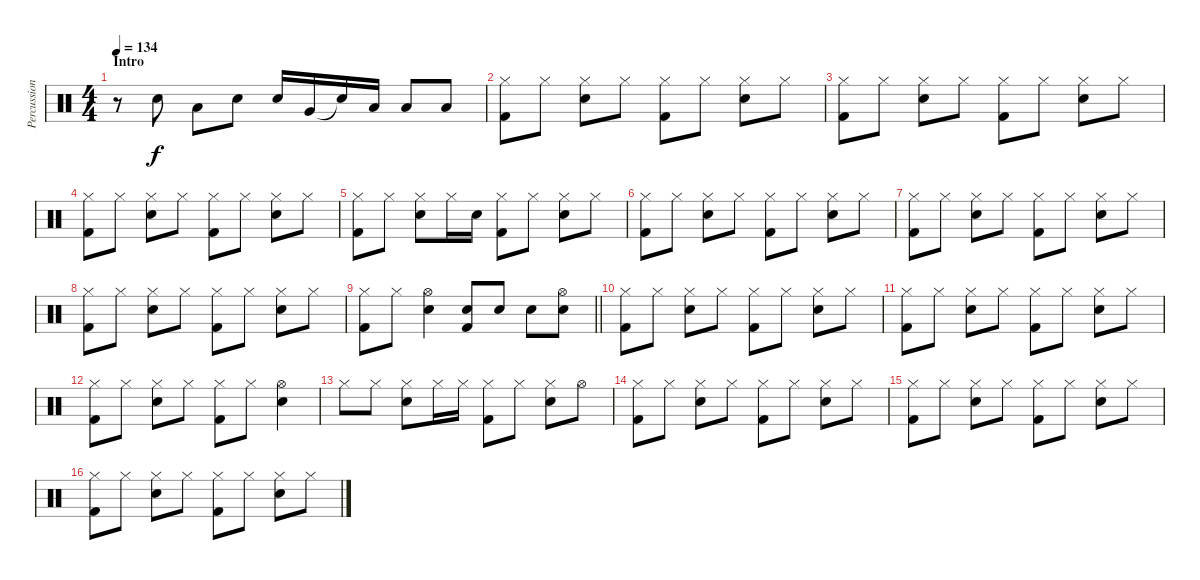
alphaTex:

\track ("Percussion" "Percussion") {instrument percussion}
\staff {score}
\articulation defaults
\ts (4 4)
\section ("" "Intro")
\tempo 134
\clef neutral
\ks c
r.8{dy f} "Snare (hit) 2".8 "Low Tom (hit)".8 "Snare (hit) 2".8 "Snare (hit) 2".16 "Very Low Tom (hit)".16 "Snare (hit)"{t}.16 "Low Floor Tom (hit)".16 "Low Floor Tom (hit)".8 "Low Floor Tom (hit)".8 |
("Hi-Hat (closed)" "Kick (hit) 2").8 "Hi-Hat (closed)".8 ("Hi-Hat (closed)" "Snare (hit) 2").8 "Hi-Hat (closed)".8 ("Hi-Hat (closed)" "Kick (hit) 2").8 "Hi-Hat (closed)".8 ("Hi-Hat (closed)" "Snare (hit) 2").8 "Hi-Hat (closed)".8 |
("Hi-Hat (closed)" "Kick (hit) 2").8 "Hi-Hat (closed)".8 ("Hi-Hat (closed)" "Snare (hit) 2").8 "Hi-Hat (closed)".8 ("Hi-Hat (closed)" "Kick (hit) 2").8 "Hi-Hat (closed)".8 ("Hi-Hat (closed)" "Snare (hit) 2").8 "Hi-Hat (closed)".8 |
("Hi-Hat (closed)" "Kick (hit) 2").8 "Hi-Hat (closed)".8 ("Hi-Hat (closed)" "Snare (hit) 2").8 "Hi-Hat (closed)".8 ("Hi-Hat (closed)" "Kick (hit) 2").8 "Hi-Hat (closed)".8 ("Hi-Hat (closed)" "Snare (hit) 2").8 "Hi-Hat (closed)".8 |
("Hi-Hat (closed)" "Kick (hit) 2").8 "Hi-Hat (closed)".8 ("Hi-Hat (closed)" "Snare (hit) 2").8 "Hi-Hat (closed)".16 "Snare (hit) 2".16 ("Hi-Hat (closed)" "Kick (hit) 2").8 "Hi-Hat (closed)".8 ("Hi-Hat (closed)" "Snare (hit) 2").8 "Hi-Hat (closed)".8 |
("Hi-Hat (closed)" "Kick (hit) 2").8 "Hi-Hat (closed)".8 ("Hi-Hat (closed)" "Snare (hit) 2").8 "Hi-Hat (closed)".8 ("Hi-Hat (closed)" "Kick (hit) 2").8 "Hi-Hat (closed)".8 ("Hi-Hat (closed)" "Snare (hit) 2").8 "Hi-Hat (closed)".8 |
("Hi-Hat (closed)" "Kick (hit) 2").8 "Hi-Hat (closed)".8 ("Hi-Hat (closed)" "Snare (hit) 2").8 "Hi-Hat (closed)".8 ("Hi-Hat (closed)" "Kick (hit) 2").8 "Hi-Hat (closed)".8 ("Hi-Hat (closed)" "Snare (hit) 2").8 "Hi-Hat (closed)".8 |
("Hi-Hat (closed)" "Kick (hit) 2").8 "Hi-Hat (closed)".8 ("Hi-Hat (closed)" "Snare (hit) 2").8 "Hi-Hat (closed)".8 ("Hi-Hat (closed)" "Kick (hit) 2").8 "Hi-Hat (closed)".8 ("Hi-Hat (closed)" "Snare (hit) 2").8 "Hi-Hat (closed)".8 |
\barLineRight lightlight
("Hi-Hat (closed)" "Kick (hit) 2").8 "Hi-Hat (closed)".8 ("Hi-Hat (open)" "Snare (hit) 2").4 ("Snare (hit) 2" "Kick (hit) 2").8 "Snare (hit) 2".8 "Snare (hit) 2".8 ("Hi-Hat (open)" "Snare (hit) 2").8 |
("Hi-Hat (closed)" "Kick (hit) 2").8 "Hi-Hat (closed)".8 ("Hi-Hat (closed)" "Snare (hit) 2").8 "Hi-Hat (closed)".8 ("Hi-Hat (closed)" "Kick (hit) 2").8 "Hi-Hat (closed)".8 ("Hi-Hat (closed)" "Snare (hit) 2").8 "Hi-Hat (closed)".8 |
("Hi-Hat (closed)" "Kick (hit) 2").8 "Hi-Hat (closed)".8 ("Hi-Hat (closed)" "Snare (hit) 2").8 "Hi-Hat (closed)".8 ("Hi-Hat (closed)" "Kick (hit) 2").8 "Hi-Hat (closed)".8 ("Hi-Hat (closed)" "Snare (hit) 2").8 "Hi-Hat (closed)".8 |
("Hi-Hat (closed)" "Kick (hit) 2").8 "Hi-Hat (closed)".8 ("Hi-Hat (closed)" "Snare (hit) 2").8 "Hi-Hat (closed)".8 ("Hi-Hat (closed)" "Kick (hit) 2").8 "Hi-Hat (closed)".8 ("Hi-Hat (open)" "Snare (hit) 2").4 |
"Hi-Hat (closed)".8 "Hi-Hat (closed)".8 ("Hi-Hat (closed)" "Snare (hit) 2").8 "Hi-Hat (closed)".16 "Hi-Hat (closed)".16 ("Hi-Hat (closed)" "Kick (hit) 2").8 "Hi-Hat (closed)".8 ("Hi-Hat (closed)" "Snare (hit) 2").8 "Hi-Hat (open)".8 |
("Hi-Hat (closed)" "Kick (hit) 2").8 "Hi-Hat (closed)".8 ("Hi-Hat (closed)" "Snare (hit) 2").8 "Hi-Hat (closed)".8 ("Hi-Hat (closed)" "Kick (hit) 2").8 "Hi-Hat (closed)".8 ("Hi-Hat (closed)" "Snare (hit) 2").8 "Hi-Hat (closed)".8 |
("Hi-Hat (closed)" "Kick (hit) 2").8 "Hi-Hat (closed)".8 ("Hi-Hat (closed)" "Snare (hit) 2").8 "Hi-Hat (closed)".8 ("Hi-Hat (closed)" "Kick (hit) 2").8 "Hi-Hat (closed)".8 ("Hi-Hat (closed)" "Snare (hit) 2").8 "Hi-Hat (closed)".8 |
("Hi-Hat (closed)" "Kick (hit) 2").8 "Hi-Hat (closed)".8 ("Hi-Hat (closed)" "Snare (hit) 2").8 "Hi-Hat (closed)".8 ("Hi-Hat (closed)" "Kick (hit) 2").8 "Hi-Hat (closed)".8 ("Hi-Hat (closed)" "Snare (hit) 2").8 "Hi-Hat (closed)".8
